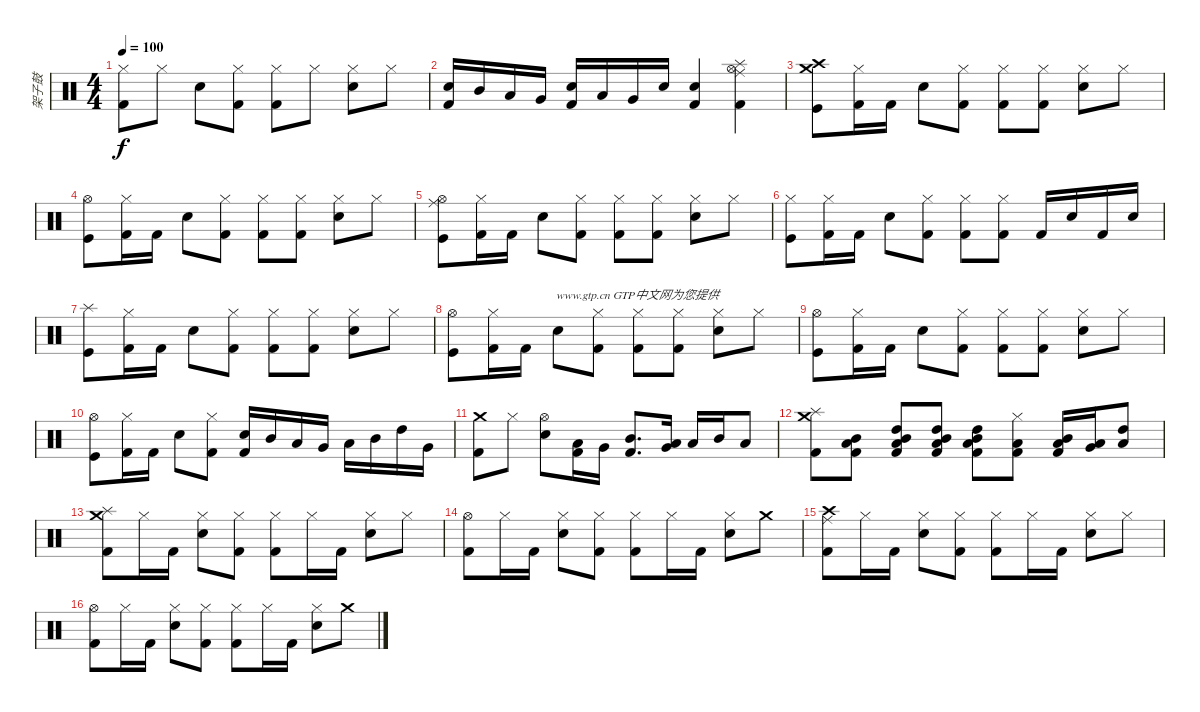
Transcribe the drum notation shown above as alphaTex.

\track ("架子鼓" "架子鼓") {instrument percussion}
\staff {score}
\articulation defaults
\ts (4 4)
\tempo 100
\clef neutral
\ks c
("Hi-Hat (closed)" "Kick (hit) 2").8{dy f} "Hi-Hat (closed)".8 "Electric Snare (hit)".8 ("Hi-Hat (closed)" "Kick (hit) 2").8 ("Hi-Hat (closed)" "Kick (hit) 2").8 "Hi-Hat (closed)".8 ("Hi-Hat (closed)" "Electric Snare (hit)").8 "Hi-Hat (closed)".8 |
("Electric Snare (hit)" "Kick (hit) 2").16 "Mid Tom (hit)".16 "Low Tom (hit)".16 "Very Low Tom (hit)".16 ("Electric Snare (hit)" "Kick (hit) 2").16 "Low Tom (hit)".16 "Very Low Tom (hit)".16 "Electric Snare (hit)".16 ("Electric Snare (hit)" "Kick (hit) 2").4 ("Splash (hit)" "Ride (middle)" "Hi-Hat (open)" "Kick (hit) 2").4 |
("Crash medium (hit)" "Crash high (hit)" "Kick (hit)").8 ("Hi-Hat (closed)" "Kick (hit) 2").16 "Kick (hit) 2".16 "Electric Snare (hit)".8 ("Hi-Hat (closed)" "Kick (hit) 2").8 ("Hi-Hat (closed)" "Kick (hit) 2").8 ("Hi-Hat (closed)" "Kick (hit) 2").8 ("Hi-Hat (closed)" "Electric Snare (hit)").8 "Hi-Hat (closed)".8 |
("Hi-Hat (open)" "Kick (hit)").8 ("Hi-Hat (closed)" "Kick (hit) 2").16 "Kick (hit) 2".16 "Electric Snare (hit)".8 ("Hi-Hat (closed)" "Kick (hit) 2").8 ("Hi-Hat (closed)" "Kick (hit) 2").8 ("Hi-Hat (closed)" "Kick (hit) 2").8 ("Hi-Hat (closed)" "Electric Snare (hit)").8 "Hi-Hat (closed)".8 |
("Ride (middle)" "Hi-Hat (open)" "Kick (hit)").8 ("Hi-Hat (closed)" "Kick (hit) 2").16 "Kick (hit) 2".16 "Electric Snare (hit)".8 ("Hi-Hat (closed)" "Kick (hit) 2").8 ("Hi-Hat (closed)" "Kick (hit) 2").8 ("Hi-Hat (closed)" "Kick (hit) 2").8 ("Hi-Hat (closed)" "Electric Snare (hit)").8 "Hi-Hat (closed)".8 |
("Hi-Hat (closed)" "Kick (hit)").8 ("Hi-Hat (closed)" "Kick (hit) 2").16 "Kick (hit) 2".16 "Electric Snare (hit)".8 ("Hi-Hat (closed)" "Kick (hit) 2").8 ("Hi-Hat (closed)" "Kick (hit) 2").8 ("Hi-Hat (closed)" "Kick (hit) 2").8 "Kick (hit) 2".16 "Electric Snare (hit)".16 "Kick (hit) 2".16 "Electric Snare (hit)".16 |
("Splash (hit)" "Kick (hit)").8 ("Hi-Hat (closed)" "Kick (hit) 2").16 "Kick (hit) 2".16 "Electric Snare (hit)".8 ("Hi-Hat (closed)" "Kick (hit) 2").8 ("Hi-Hat (closed)" "Kick (hit) 2").8 ("Hi-Hat (closed)" "Kick (hit) 2").8 ("Hi-Hat (closed)" "Electric Snare (hit)").8 "Hi-Hat (closed)".8 |
("Hi-Hat (open)" "Kick (hit)").8 ("Hi-Hat (closed)" "Kick (hit) 2").16{txt "                     www.gtp.cn GTP中文网为您提供"} "Kick (hit) 2".16 "Electric Snare (hit)".8 ("Hi-Hat (closed)" "Kick (hit) 2").8 ("Hi-Hat (closed)" "Kick (hit) 2").8 ("Hi-Hat (closed)" "Kick (hit) 2").8 ("Hi-Hat (closed)" "Electric Snare (hit)").8 "Hi-Hat (closed)".8 |
("Hi-Hat (open)" "Kick (hit)").8 ("Hi-Hat (closed)" "Kick (hit) 2").16 "Kick (hit) 2".16 "Electric Snare (hit)".8 ("Hi-Hat (closed)" "Kick (hit) 2").8 ("Hi-Hat (closed)" "Kick (hit) 2").8 ("Hi-Hat (closed)" "Kick (hit) 2").8 ("Hi-Hat (closed)" "Electric Snare (hit)").8 "Hi-Hat (closed)".8 |
("Hi-Hat (open)" "Kick (hit)").8 ("Hi-Hat (closed)" "Kick (hit) 2").16 "Kick (hit) 2".16 "Electric Snare (hit)".8 ("Hi-Hat (closed)" "Kick (hit) 2").8 ("Electric Snare (hit)" "Kick (hit) 2").16 "Mid Tom (hit)".16 "Low Tom (hit)".16 "Very Low Tom (hit)".16 "Low Tom (hit)".16 "Mid Tom (hit)".16 "High Tom (hit)".16 "Very Low Tom (hit)".16 |
("Crash medium (hit)" "Kick (hit) 2").8 "Hi-Hat (closed)".8 ("Hi-Hat (open)" "Electric Snare (hit)").8 ("Low Tom (hit)" "Kick (hit) 2").16 "Very Low Tom (hit)".16 ("Mid Tom (hit)" "Kick (hit) 2").8{d} ("Very Low Tom (hit)" "Low Tom (hit)").16 "Low Tom (hit)".16 "Mid Tom (hit)".16 "Low Floor Tom (hit)".8 |
("Splash (hit)" "Crash medium (hit)" "Kick (hit) 2").8 ("Mid Tom (hit)" "Low Tom (hit)" "Kick (hit) 2").8 ("Mid Tom (hit)" "High Tom (hit)" "Low Tom (hit)" "Kick (hit) 2").8 ("Mid Tom (hit)" "High Tom (hit)" "Low Tom (hit)" "Kick (hit) 2").8 ("Mid Tom (hit)" "High Tom (hit)" "Low Tom (hit)" "Kick (hit) 2").8 ("Hi-Hat (closed)" "Low Tom (hit)" "Kick (hit) 2").8 ("Mid Tom (hit)" "Low Tom (hit)" "Kick (hit) 2").16 ("Low Tom (hit)" "Very Low Tom (hit)").16 ("High Tom (hit)" "Low Floor Tom (hit)").8 |
("Splash (hit)" "Crash medium (hit)" "Kick (hit) 2").8 "Hi-Hat (closed)".16 "Kick (hit) 2".16 ("Hi-Hat (closed)" "Electric Snare (hit)").8 ("Hi-Hat (closed)" "Kick (hit) 2").8 ("Hi-Hat (closed)" "Kick (hit) 2").8 "Hi-Hat (closed)".16 "Kick (hit) 2".16 ("Hi-Hat (closed)" "Electric Snare (hit)").8 "Hi-Hat (closed)".8 |
("Hi-Hat (open)" "Kick (hit) 2").8 "Hi-Hat (closed)".16 "Kick (hit) 2".16 ("Hi-Hat (closed)" "Electric Snare (hit)").8 ("Hi-Hat (closed)" "Kick (hit) 2").8 ("Hi-Hat (closed)" "Kick (hit) 2").8 "Hi-Hat (closed)".16 "Kick (hit) 2".16 ("Hi-Hat (closed)" "Electric Snare (hit)").8 "Crash medium (hit)".8 |
("Ride (middle)" "Crash high (hit)" "Kick (hit) 2").8 "Hi-Hat (closed)".16 "Kick (hit) 2".16 ("Hi-Hat (closed)" "Electric Snare (hit)").8 ("Hi-Hat (closed)" "Kick (hit) 2").8 ("Hi-Hat (closed)" "Kick (hit) 2").8 "Hi-Hat (closed)".16 "Kick (hit) 2".16 ("Hi-Hat (closed)" "Electric Snare (hit)").8 "Hi-Hat (closed)".8 |
("Hi-Hat (open)" "Kick (hit) 2").8 "Hi-Hat (closed)".16 "Kick (hit) 2".16 ("Hi-Hat (closed)" "Electric Snare (hit)").8 ("Hi-Hat (closed)" "Kick (hit) 2").8 ("Hi-Hat (closed)" "Kick (hit) 2").8 "Hi-Hat (closed)".16 "Kick (hit) 2".16 ("Hi-Hat (closed)" "Electric Snare (hit)").8 "Crash medium (hit)".8
